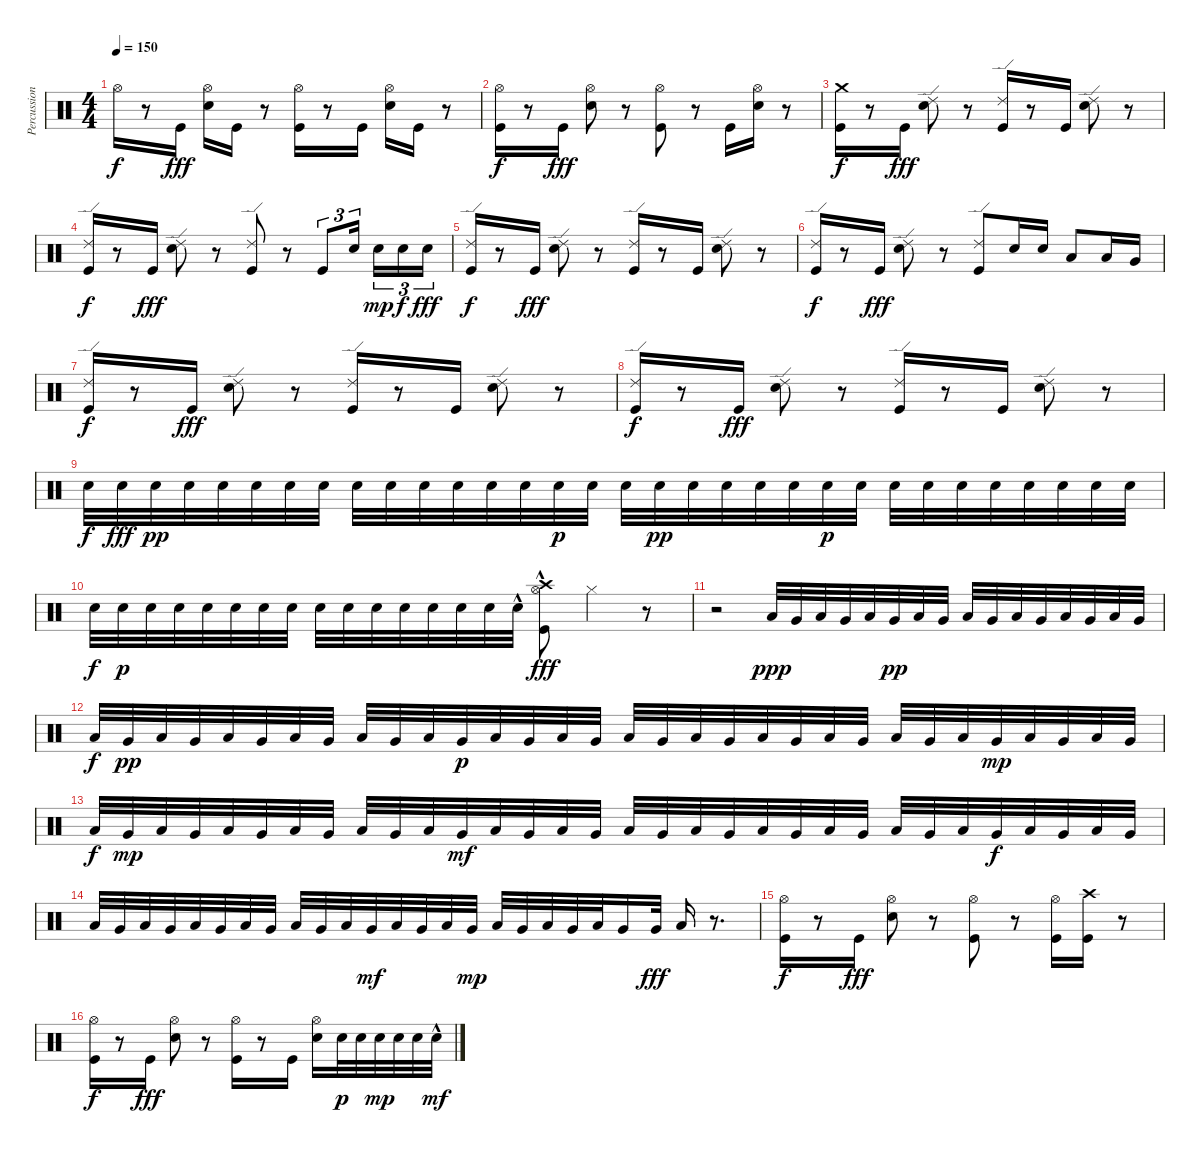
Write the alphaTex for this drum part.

\track ("Percussion" "Percussion") {instrument percussion}
\staff {score}
\articulation defaults
\ts (4 4)
\tempo 150
\clef neutral
\ks c "Hi-Hat (open)".16{dy f}
r.8 "Kick (hit)".16{dy fff} ("Electric Snare (hit)" "Hi-Hat (open)").16 "Kick (hit)".16 r.8 ("Kick (hit)" "Hi-Hat (open)").16 r.8 "Kick (hit)".16 ("Electric Snare (hit)" "Hi-Hat (open)").16 "Kick (hit)".16 r.8 |
("Kick (hit)" "Hi-Hat (open)").16{dy f} r.8 "Kick (hit)".16{dy fff} ("Electric Snare (hit)" "Hi-Hat (open)").8 r.8 ("Kick (hit)" "Hi-Hat (open)").8 r.8 "Kick (hit)".16 ("Electric Snare (hit)" "Hi-Hat (open)").16 r.8 |
("Kick (hit)" "Crash medium (hit)").16{dy f} r.8 "Kick (hit)".16{dy fff} ("Electric Snare (hit)" "Ride (edge) 2").8 r.8 ("Kick (hit)" "Ride (edge) 2").16 r.8 "Kick (hit)".16 ("Electric Snare (hit)" "Ride (edge) 2").8 r.8 |
("Kick (hit)" "Ride (edge) 2").16{dy f} r.8 "Kick (hit)".16{dy fff} ("Ride (edge) 2" "Electric Snare (hit)").8 r.8 ("Ride (edge) 2" "Kick (hit)").8 r.8 "Kick (hit)".8{tu (3 2)} "Electric Snare (hit)".16{tu (3 2)} "Electric Snare (hit)".16{tu (3 2) dy mp} "Electric Snare (hit)".16{tu (3 2) dy f} "Electric Snare (hit)".16{tu (3 2) dy fff} |
("Kick (hit)" "Ride (edge) 2").16{dy f} r.8 "Kick (hit)".16{dy fff} ("Electric Snare (hit)" "Ride (edge) 2").8 r.8 ("Kick (hit)" "Ride (edge) 2").16 r.8 "Kick (hit)".16 ("Electric Snare (hit)" "Ride (edge) 2").8 r.8 |
("Kick (hit)" "Ride (edge) 2").16{dy f} r.8 "Kick (hit)".16{dy fff} ("Ride (edge) 2" "Electric Snare (hit)").8 r.8 ("Kick (hit)" "Ride (edge) 2").8 "Electric Snare (hit)".16 "Electric Snare (hit)".16 "Low Tom (hit)".8 "Low Tom (hit)".16 "Very Low Tom (hit)".16 |
("Kick (hit)" "Ride (edge) 2").16{dy f} r.8 "Kick (hit)".16{dy fff} ("Electric Snare (hit)" "Ride (edge) 2").8 r.8 ("Kick (hit)" "Ride (edge) 2").16 r.8 "Kick (hit)".16 ("Electric Snare (hit)" "Ride (edge) 2").8 r.8 |
("Kick (hit)" "Ride (edge) 2").16{dy f} r.8 "Kick (hit)".16{dy fff} ("Electric Snare (hit)" "Ride (edge) 2").8 r.8 ("Kick (hit)" "Ride (edge) 2").16 r.8 "Kick (hit)".16 ("Electric Snare (hit)" "Ride (edge) 2").8 r.8 |
"Electric Snare (hit)".32{dy f} "Electric Snare (hit)".32{dy fff} "Electric Snare (hit)".32{dy pp} "Electric Snare (hit)".32 "Electric Snare (hit)".32 "Electric Snare (hit)".32 "Electric Snare (hit)".32 "Electric Snare (hit)".32 "Electric Snare (hit)".32 "Electric Snare (hit)".32 "Electric Snare (hit)".32 "Electric Snare (hit)".32 "Electric Snare (hit)".32 "Electric Snare (hit)".32 "Electric Snare (hit)".32{dy p} "Electric Snare (hit)".32 "Electric Snare (hit)".32 "Electric Snare (hit)".32{dy pp} "Electric Snare (hit)".32 "Electric Snare (hit)".32 "Electric Snare (hit)".32 "Electric Snare (hit)".32 "Electric Snare (hit)".32{dy p} "Electric Snare (hit)".32 "Electric Snare (hit)".32 "Electric Snare (hit)".32 "Electric Snare (hit)".32 "Electric Snare (hit)".32 "Electric Snare (hit)".32 "Electric Snare (hit)".32 "Electric Snare (hit)".32 "Electric Snare (hit)".32 |
"Electric Snare (hit)".32{dy f} "Electric Snare (hit)".32{dy p} "Electric Snare (hit)".32 "Electric Snare (hit)".32 "Electric Snare (hit)".32 "Electric Snare (hit)".32 "Electric Snare (hit)".32 "Electric Snare (hit)".32 "Electric Snare (hit)".32 "Electric Snare (hit)".32 "Electric Snare (hit)".32 "Electric Snare (hit)".32 "Electric Snare (hit)".32 "Electric Snare (hit)".32 "Electric Snare (hit)".32 "Electric Snare (hit)"{hac}.32 ("Hi-Hat (open)"{hac} "Crash high (hit)"{hac} "Kick (hit)"{hac}).8{dy fff} "Hi-Hat (closed)".4 r.8 |
r.2 "Low Tom (hit)".32{dy ppp} "Very Low Tom (hit)".32 "Low Tom (hit)".32 "Very Low Tom (hit)".32 "Low Tom (hit)".32 "Very Low Tom (hit)".32{dy pp} "Low Tom (hit)".32 "Very Low Tom (hit)".32 "Low Tom (hit)".32 "Very Low Tom (hit)".32 "Low Tom (hit)".32 "Very Low Tom (hit)".32 "Low Tom (hit)".32 "Very Low Tom (hit)".32 "Low Tom (hit)".32 "Very Low Tom (hit)".32 |
"Low Tom (hit)".32{dy f} "Very Low Tom (hit)".32{dy pp} "Low Tom (hit)".32 "Very Low Tom (hit)".32 "Low Tom (hit)".32 "Very Low Tom (hit)".32 "Low Tom (hit)".32 "Very Low Tom (hit)".32 "Low Tom (hit)".32 "Very Low Tom (hit)".32 "Low Tom (hit)".32 "Very Low Tom (hit)".32{dy p} "Low Tom (hit)".32 "Very Low Tom (hit)".32 "Low Tom (hit)".32 "Very Low Tom (hit)".32 "Low Tom (hit)".32 "Very Low Tom (hit)".32 "Low Tom (hit)".32 "Very Low Tom (hit)".32 "Low Tom (hit)".32 "Very Low Tom (hit)".32 "Low Tom (hit)".32 "Very Low Tom (hit)".32 "Low Tom (hit)".32 "Very Low Tom (hit)".32 "Low Tom (hit)".32 "Very Low Tom (hit)".32{dy mp} "Low Tom (hit)".32 "Very Low Tom (hit)".32 "Low Tom (hit)".32 "Very Low Tom (hit)".32 |
"Low Tom (hit)".32{dy f} "Very Low Tom (hit)".32{dy mp} "Low Tom (hit)".32 "Very Low Tom (hit)".32 "Low Tom (hit)".32 "Very Low Tom (hit)".32 "Low Tom (hit)".32 "Very Low Tom (hit)".32 "Low Tom (hit)".32 "Very Low Tom (hit)".32 "Low Tom (hit)".32 "Very Low Tom (hit)".32{dy mf} "Low Tom (hit)".32 "Very Low Tom (hit)".32 "Low Tom (hit)".32 "Very Low Tom (hit)".32 "Low Tom (hit)".32 "Very Low Tom (hit)".32 "Low Tom (hit)".32 "Very Low Tom (hit)".32 "Low Tom (hit)".32 "Very Low Tom (hit)".32 "Low Tom (hit)".32 "Very Low Tom (hit)".32 "Low Tom (hit)".32 "Very Low Tom (hit)".32 "Low Tom (hit)".32 "Very Low Tom (hit)".32{dy f} "Low Tom (hit)".32 "Very Low Tom (hit)".32 "Low Tom (hit)".32 "Very Low Tom (hit)".32 |
"Low Tom (hit)".32 "Very Low Tom (hit)".32 "Low Tom (hit)".32 "Very Low Tom (hit)".32 "Low Tom (hit)".32 "Very Low Tom (hit)".32 "Low Tom (hit)".32 "Very Low Tom (hit)".32 "Low Tom (hit)".32 "Very Low Tom (hit)".32 "Low Tom (hit)".32 "Very Low Tom (hit)".32{dy mf} "Low Tom (hit)".32 "Very Low Tom (hit)".32 "Low Tom (hit)".32 "Very Low Tom (hit)".32{dy mp} "Low Tom (hit)".32 "Very Low Tom (hit)".32 "Low Tom (hit)".32 "Very Low Tom (hit)".32 "Low Tom (hit)".32 "Very Low Tom (hit)".16 "Very Low Tom (hit)".32{dy fff} "Low Tom (hit)".16 r.8{d} |
("Kick (hit)" "Hi-Hat (open)").16{dy f} r.8 "Kick (hit)".16{dy fff} ("Electric Snare (hit)" "Hi-Hat (open)").8 r.8 ("Kick (hit)" "Hi-Hat (open)").8 r.8 ("Kick (hit)" "Hi-Hat (open)").16 ("Kick (hit)" "Crash high (hit)").16 r.8 |
("Kick (hit)" "Hi-Hat (open)").16{dy f} r.8 "Kick (hit)".16{dy fff} ("Hi-Hat (open)" "Electric Snare (hit)").8 r.8 ("Kick (hit)" "Hi-Hat (open)").16 r.8 "Kick (hit)".16 ("Electric Snare (hit)" "Hi-Hat (open)").16 "Electric Snare (hit)".32{dy p} "Electric Snare (hit)".32 "Electric Snare (hit)".32{dy mp} "Electric Snare (hit)".32 "Electric Snare (hit)".32 "Electric Snare (hit)"{hac}.32{dy mf}
